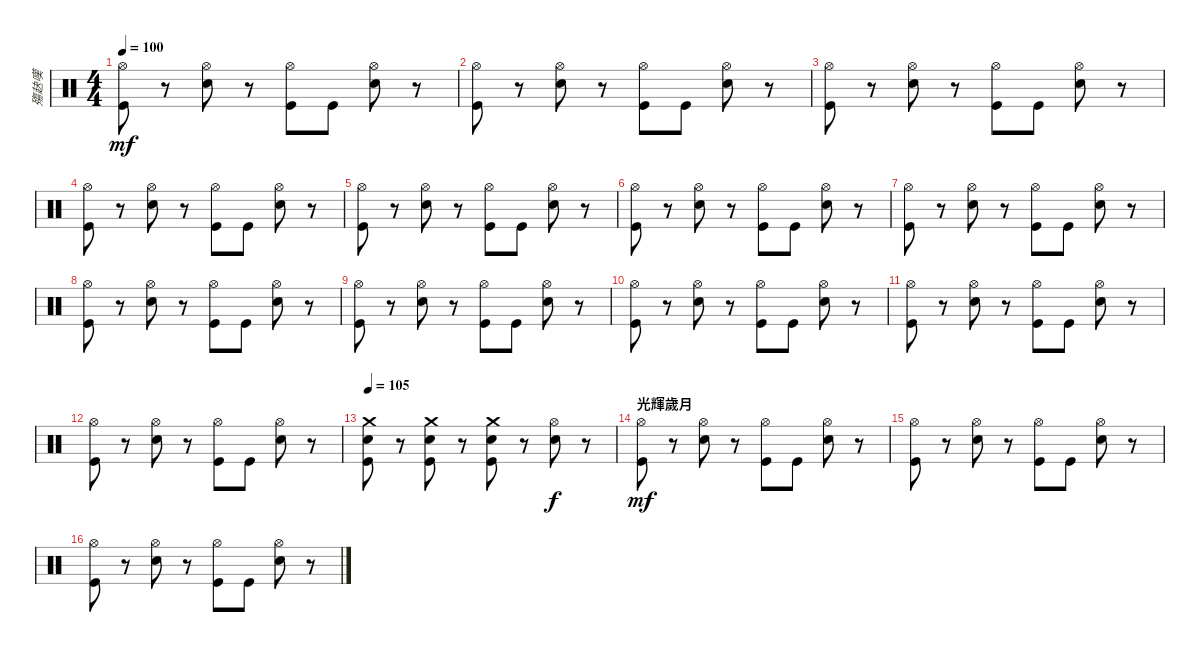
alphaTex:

\track ("殤赽嘆" "殤赽嘆") {instrument percussion}
\staff {score}
\articulation defaults
\ts (4 4)
\tempo 100
\clef neutral
\ks c
("Hi-Hat (open)" "Kick (hit)").8{dy mf} r.8 ("Hi-Hat (open)" "Snare (hit) 2").8 r.8 ("Hi-Hat (open)" "Kick (hit)").8 "Kick (hit)".8 ("Hi-Hat (open)" "Snare (hit) 2").8 r.8 |
("Hi-Hat (open)" "Kick (hit)").8 r.8 ("Hi-Hat (open)" "Snare (hit) 2").8 r.8 ("Hi-Hat (open)" "Kick (hit)").8 "Kick (hit)".8 ("Hi-Hat (open)" "Snare (hit) 2").8 r.8 |
("Hi-Hat (open)" "Kick (hit)").8 r.8 ("Hi-Hat (open)" "Snare (hit) 2").8 r.8 ("Hi-Hat (open)" "Kick (hit)").8 "Kick (hit)".8 ("Hi-Hat (open)" "Snare (hit) 2").8 r.8 |
("Hi-Hat (open)" "Kick (hit)").8 r.8 ("Hi-Hat (open)" "Snare (hit) 2").8 r.8 ("Hi-Hat (open)" "Kick (hit)").8 "Kick (hit)".8 ("Hi-Hat (open)" "Snare (hit) 2").8 r.8 |
("Hi-Hat (open)" "Kick (hit)").8 r.8 ("Hi-Hat (open)" "Snare (hit) 2").8 r.8 ("Hi-Hat (open)" "Kick (hit)").8 "Kick (hit)".8 ("Hi-Hat (open)" "Snare (hit) 2").8 r.8 |
("Hi-Hat (open)" "Kick (hit)").8 r.8 ("Hi-Hat (open)" "Snare (hit) 2").8 r.8 ("Hi-Hat (open)" "Kick (hit)").8 "Kick (hit)".8 ("Hi-Hat (open)" "Snare (hit) 2").8 r.8 |
("Hi-Hat (open)" "Kick (hit)").8 r.8 ("Hi-Hat (open)" "Snare (hit) 2").8 r.8 ("Hi-Hat (open)" "Kick (hit)").8 "Kick (hit)".8 ("Hi-Hat (open)" "Snare (hit) 2").8 r.8 |
("Hi-Hat (open)" "Kick (hit)").8 r.8 ("Hi-Hat (open)" "Snare (hit) 2").8 r.8 ("Hi-Hat (open)" "Kick (hit)").8 "Kick (hit)".8 ("Hi-Hat (open)" "Snare (hit) 2").8 r.8 |
("Hi-Hat (open)" "Kick (hit)").8 r.8 ("Hi-Hat (open)" "Snare (hit) 2").8 r.8 ("Hi-Hat (open)" "Kick (hit)").8 "Kick (hit)".8 ("Hi-Hat (open)" "Snare (hit) 2").8 r.8 |
("Hi-Hat (open)" "Kick (hit)").8 r.8 ("Hi-Hat (open)" "Snare (hit) 2").8 r.8 ("Hi-Hat (open)" "Kick (hit)").8 "Kick (hit)".8 ("Hi-Hat (open)" "Snare (hit) 2").8 r.8 |
("Hi-Hat (open)" "Kick (hit)").8 r.8 ("Hi-Hat (open)" "Snare (hit) 2").8 r.8 ("Hi-Hat (open)" "Kick (hit)").8 "Kick (hit)".8 ("Hi-Hat (open)" "Snare (hit) 2").8 r.8 |
("Hi-Hat (open)" "Kick (hit)").8 r.8 ("Hi-Hat (open)" "Snare (hit) 2").8 r.8 ("Hi-Hat (open)" "Kick (hit)").8 "Kick (hit)".8 ("Hi-Hat (open)" "Snare (hit) 2").8 r.8 |
\tempo 105
("Crash medium (hit)" "Snare (hit) 2" "Kick (hit)").8 r.8 ("Crash medium (hit)" "Snare (hit) 2" "Kick (hit)").8 r.8 ("Crash medium (hit)" "Snare (hit) 2" "Kick (hit)").8 r.8 ("Hi-Hat (open)" "Snare (hit) 2").8{dy f} r.8 |
\section ("" "光輝歲月  ")
("Hi-Hat (open)" "Kick (hit)").8{dy mf} r.8 ("Hi-Hat (open)" "Snare (hit) 2").8 r.8 ("Hi-Hat (open)" "Kick (hit)").8 "Kick (hit)".8 ("Hi-Hat (open)" "Snare (hit) 2").8 r.8 |
("Hi-Hat (open)" "Kick (hit)").8 r.8 ("Hi-Hat (open)" "Snare (hit) 2").8 r.8 ("Hi-Hat (open)" "Kick (hit)").8 "Kick (hit)".8 ("Hi-Hat (open)" "Snare (hit) 2").8 r.8 |
("Hi-Hat (open)" "Kick (hit)").8 r.8 ("Hi-Hat (open)" "Snare (hit) 2").8 r.8 ("Hi-Hat (open)" "Kick (hit)").8 "Kick (hit)".8 ("Hi-Hat (open)" "Snare (hit) 2").8 r.8
